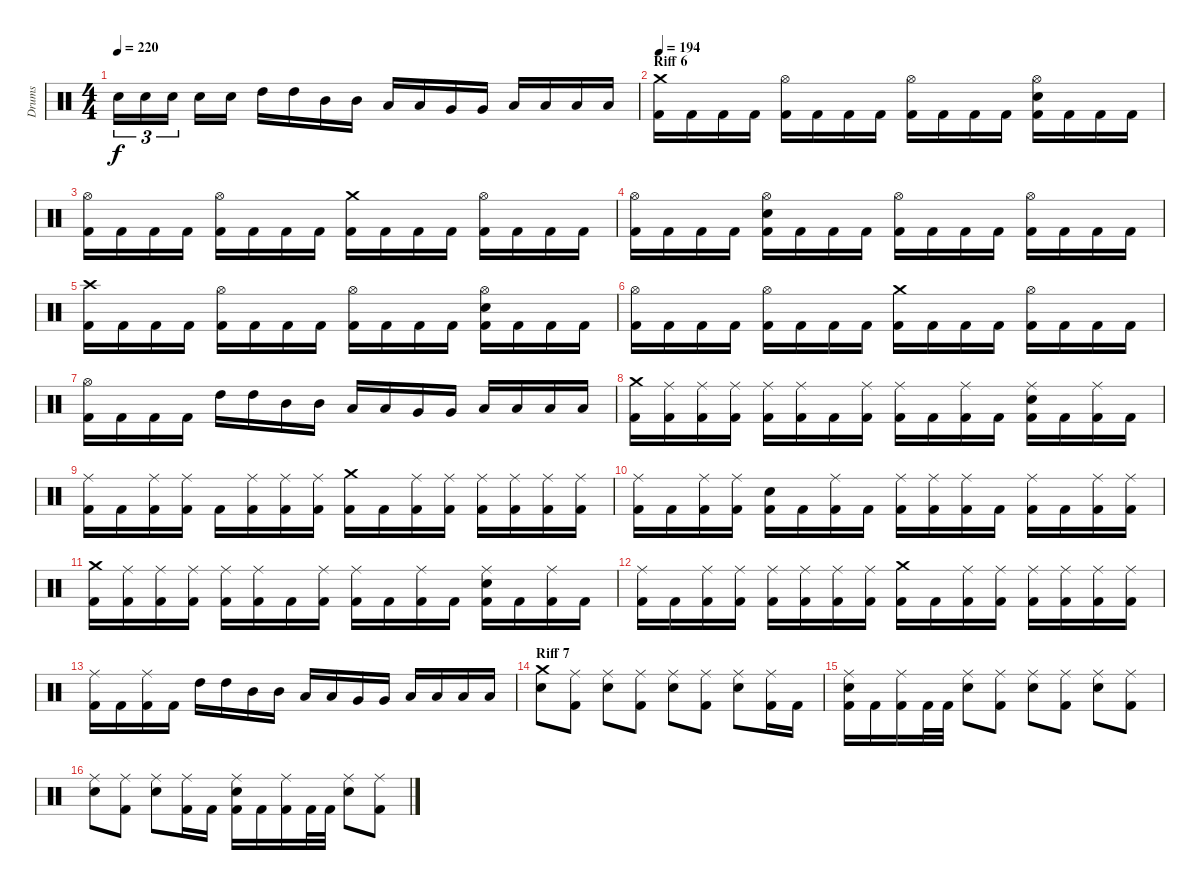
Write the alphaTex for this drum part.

\track ("Drums" "Drums") {instrument percussion}
\staff {score}
\articulation defaults
\ts (4 4)
\tempo 220
\clef neutral
\ks c "Electric Snare (hit)".16{tu (3 2) dy f} "Electric Snare (hit)".16{tu (3 2)} "Electric Snare (hit)".16{tu (3 2)} "Electric Snare (hit)".16 "Electric Snare (hit)".16 "High Tom (hit)".16 "High Tom (hit)".16 "Mid Tom (hit)".16 "Mid Tom (hit)".16 "Low Tom (hit)".16 "Low Tom (hit)".16 "Very Low Tom (hit)".16 "Very Low Tom (hit)".16 "Low Floor Tom (hit)".16 "Low Floor Tom (hit)".16 "Low Floor Tom (hit)".16 "Low Floor Tom (hit)".16
|
\section ("" "Riff 6")
\tempo 194
("Crash medium (hit)" "Kick (hit) 2").16 "Kick (hit) 2".16 "Kick (hit) 2".16 "Kick (hit) 2".16 ("Hi-Hat (open)" "Kick (hit) 2").16 "Kick (hit) 2".16 "Kick (hit) 2".16 "Kick (hit) 2".16 ("Hi-Hat (open)" "Kick (hit) 2").16 "Kick (hit) 2".16 "Kick (hit) 2".16 "Kick (hit) 2".16 ("Hi-Hat (open)" "Electric Snare (hit)" "Kick (hit) 2").16 "Kick (hit) 2".16 "Kick (hit) 2".16 "Kick (hit) 2".16 |
("Hi-Hat (open)" "Kick (hit) 2").16 "Kick (hit) 2".16 "Kick (hit) 2".16 "Kick (hit) 2".16 ("Hi-Hat (open)" "Kick (hit) 2").16 "Kick (hit) 2".16 "Kick (hit) 2".16 "Kick (hit) 2".16 ("Crash medium (hit)" "Kick (hit) 2").16 "Kick (hit) 2".16 "Kick (hit) 2".16 "Kick (hit) 2".16 ("Hi-Hat (open)" "Kick (hit) 2").16 "Kick (hit) 2".16 "Kick (hit) 2".16 "Kick (hit) 2".16 |
("Hi-Hat (open)" "Kick (hit) 2").16 "Kick (hit) 2".16 "Kick (hit) 2".16 "Kick (hit) 2".16 ("Hi-Hat (open)" "Electric Snare (hit)" "Kick (hit) 2").16 "Kick (hit) 2".16 "Kick (hit) 2".16 "Kick (hit) 2".16 ("Hi-Hat (open)" "Kick (hit) 2").16 "Kick (hit) 2".16 "Kick (hit) 2".16 "Kick (hit) 2".16 ("Hi-Hat (open)" "Kick (hit) 2").16 "Kick (hit) 2".16 "Kick (hit) 2".16 "Kick (hit) 2".16 |
("Crash high (hit)" "Kick (hit) 2").16 "Kick (hit) 2".16 "Kick (hit) 2".16 "Kick (hit) 2".16 ("Hi-Hat (open)" "Kick (hit) 2").16 "Kick (hit) 2".16 "Kick (hit) 2".16 "Kick (hit) 2".16 ("Hi-Hat (open)" "Kick (hit) 2").16 "Kick (hit) 2".16 "Kick (hit) 2".16 "Kick (hit) 2".16 ("Hi-Hat (open)" "Electric Snare (hit)" "Kick (hit) 2").16 "Kick (hit) 2".16 "Kick (hit) 2".16 "Kick (hit) 2".16 |
("Hi-Hat (open)" "Kick (hit) 2").16 "Kick (hit) 2".16 "Kick (hit) 2".16 "Kick (hit) 2".16 ("Hi-Hat (open)" "Kick (hit) 2").16 "Kick (hit) 2".16 "Kick (hit) 2".16 "Kick (hit) 2".16 ("Crash medium (hit)" "Kick (hit) 2").16 "Kick (hit) 2".16 "Kick (hit) 2".16 "Kick (hit) 2".16 ("Hi-Hat (open)" "Kick (hit) 2").16 "Kick (hit) 2".16 "Kick (hit) 2".16 "Kick (hit) 2".16 |
("Hi-Hat (open)" "Kick (hit) 2").16 "Kick (hit) 2".16 "Kick (hit) 2".16 "Kick (hit) 2".16 "High Tom (hit)".16 "High Tom (hit)".16 "Mid Tom (hit)".16 "Mid Tom (hit)".16 "Low Tom (hit)".16 "Low Tom (hit)".16 "Very Low Tom (hit)".16 "Very Low Tom (hit)".16 "Low Floor Tom (hit)".16 "Low Floor Tom (hit)".16 "Low Floor Tom (hit)".16 "Low Floor Tom (hit)".16 |
("Crash medium (hit)" "Kick (hit) 2").16 ("Ride (middle)" "Kick (hit) 2").16 ("Ride (middle)" "Kick (hit) 2").16 ("Ride (middle)" "Kick (hit) 2").16 ("Ride (middle)" "Kick (hit) 2").16 ("Ride (middle)" "Kick (hit) 2").16 "Kick (hit) 2".16 ("Ride (middle)" "Kick (hit) 2").16 ("Ride (middle)" "Kick (hit) 2").16 "Kick (hit) 2".16 ("Ride (middle)" "Kick (hit) 2").16 "Kick (hit) 2".16 ("Ride (middle)" "Electric Snare (hit)" "Kick (hit) 2").16 "Kick (hit) 2".16 ("Ride (middle)" "Kick (hit) 2").16 "Kick (hit) 2".16 |
("Ride (middle)" "Kick (hit) 2").16 "Kick (hit) 2".16 ("Ride (middle)" "Kick (hit) 2").16 ("Ride (middle)" "Kick (hit) 2").16 "Kick (hit) 2".16 ("Ride (middle)" "Kick (hit) 2").16 ("Ride (middle)" "Kick (hit) 2").16 ("Ride (middle)" "Kick (hit) 2").16 ("Crash medium (hit)" "Kick (hit) 2").16 "Kick (hit) 2".16 ("Ride (middle)" "Kick (hit) 2").16 ("Ride (middle)" "Kick (hit) 2").16 ("Ride (middle)" "Kick (hit) 2").16 ("Ride (middle)" "Kick (hit) 2").16 ("Ride (middle)" "Kick (hit) 2").16 ("Ride (middle)" "Kick (hit) 2").16 |
("Ride (middle)" "Kick (hit) 2").16 "Kick (hit) 2".16 ("Ride (middle)" "Kick (hit) 2").16 ("Ride (middle)" "Kick (hit) 2").16 ("Electric Snare (hit)" "Kick (hit) 2").16 "Kick (hit) 2".16 ("Ride (middle)" "Kick (hit) 2").16 "Kick (hit) 2".16 ("Ride (middle)" "Kick (hit) 2").16 ("Ride (middle)" "Kick (hit) 2").16 ("Ride (middle)" "Kick (hit) 2").16 "Kick (hit) 2".16 ("Ride (middle)" "Kick (hit) 2").16 "Kick (hit) 2".16 ("Ride (middle)" "Kick (hit) 2").16 ("Ride (middle)" "Kick (hit) 2").16 |
("Crash medium (hit)" "Kick (hit) 2").16 ("Ride (middle)" "Kick (hit) 2").16 ("Ride (middle)" "Kick (hit) 2").16 ("Ride (middle)" "Kick (hit) 2").16 ("Ride (middle)" "Kick (hit) 2").16 ("Ride (middle)" "Kick (hit) 2").16 "Kick (hit) 2".16 ("Ride (middle)" "Kick (hit) 2").16 ("Ride (middle)" "Kick (hit) 2").16 "Kick (hit) 2".16 ("Ride (middle)" "Kick (hit) 2").16 "Kick (hit) 2".16 ("Ride (middle)" "Electric Snare (hit)" "Kick (hit) 2").16 "Kick (hit) 2".16 ("Ride (middle)" "Kick (hit) 2").16 "Kick (hit) 2".16 |
("Ride (middle)" "Kick (hit) 2").16 "Kick (hit) 2".16 ("Ride (middle)" "Kick (hit) 2").16 ("Ride (middle)" "Kick (hit) 2").16 ("Ride (middle)" "Kick (hit) 2").16 ("Ride (middle)" "Kick (hit) 2").16 ("Ride (middle)" "Kick (hit) 2").16 ("Ride (middle)" "Kick (hit) 2").16 ("Crash medium (hit)" "Kick (hit) 2").16 "Kick (hit) 2".16 ("Ride (middle)" "Kick (hit) 2").16 ("Ride (middle)" "Kick (hit) 2").16 ("Ride (middle)" "Kick (hit) 2").16 ("Ride (middle)" "Kick (hit) 2").16 ("Ride (middle)" "Kick (hit) 2").16 ("Ride (middle)" "Kick (hit) 2").16 |
("Ride (middle)" "Kick (hit) 2").16 "Kick (hit) 2".16 ("Ride (middle)" "Kick (hit) 2").16 "Kick (hit) 2".16 "High Tom (hit)".16 "High Tom (hit)".16 "Mid Tom (hit)".16 "Mid Tom (hit)".16 "Low Tom (hit)".16 "Low Tom (hit)".16 "Very Low Tom (hit)".16 "Very Low Tom (hit)".16 "Low Floor Tom (hit)".16 "Low Floor Tom (hit)".16 "Low Floor Tom (hit)".16 "Low Floor Tom (hit)".16 |
\section ("" "Riff 7")
("Crash medium (hit)" "Electric Snare (hit)").8 ("Ride (middle)" "Kick (hit) 2").8 ("Ride (middle)" "Electric Snare (hit)").8 ("Ride (middle)" "Kick (hit) 2").8 ("Ride (middle)" "Electric Snare (hit)").8 ("Ride (middle)" "Kick (hit) 2").8 ("Ride (middle)" "Electric Snare (hit)").8 ("Ride (middle)" "Kick (hit) 2").16 "Kick (hit) 2".16 |
("Ride (middle)" "Electric Snare (hit)" "Kick (hit) 2").16 "Kick (hit) 2".16 ("Ride (middle)" "Kick (hit) 2").16 "Kick (hit) 2".32 "Kick (hit) 2".32 ("Ride (middle)" "Electric Snare (hit)").8 ("Ride (middle)" "Kick (hit) 2").8 ("Ride (middle)" "Electric Snare (hit)").8 ("Ride (middle)" "Kick (hit) 2").8 ("Ride (middle)" "Electric Snare (hit)").8 ("Ride (middle)" "Kick (hit) 2").8 |
("Ride (middle)" "Electric Snare (hit)").8 ("Ride (middle)" "Kick (hit) 2").8 ("Ride (middle)" "Electric Snare (hit)").8 ("Ride (middle)" "Kick (hit) 2").16 "Kick (hit) 2".16 ("Ride (middle)" "Electric Snare (hit)" "Kick (hit) 2").16 "Kick (hit) 2".16 ("Ride (middle)" "Kick (hit) 2").16 "Kick (hit) 2".32 "Kick (hit) 2".32 ("Ride (middle)" "Electric Snare (hit)").8 ("Ride (middle)" "Kick (hit) 2").8
